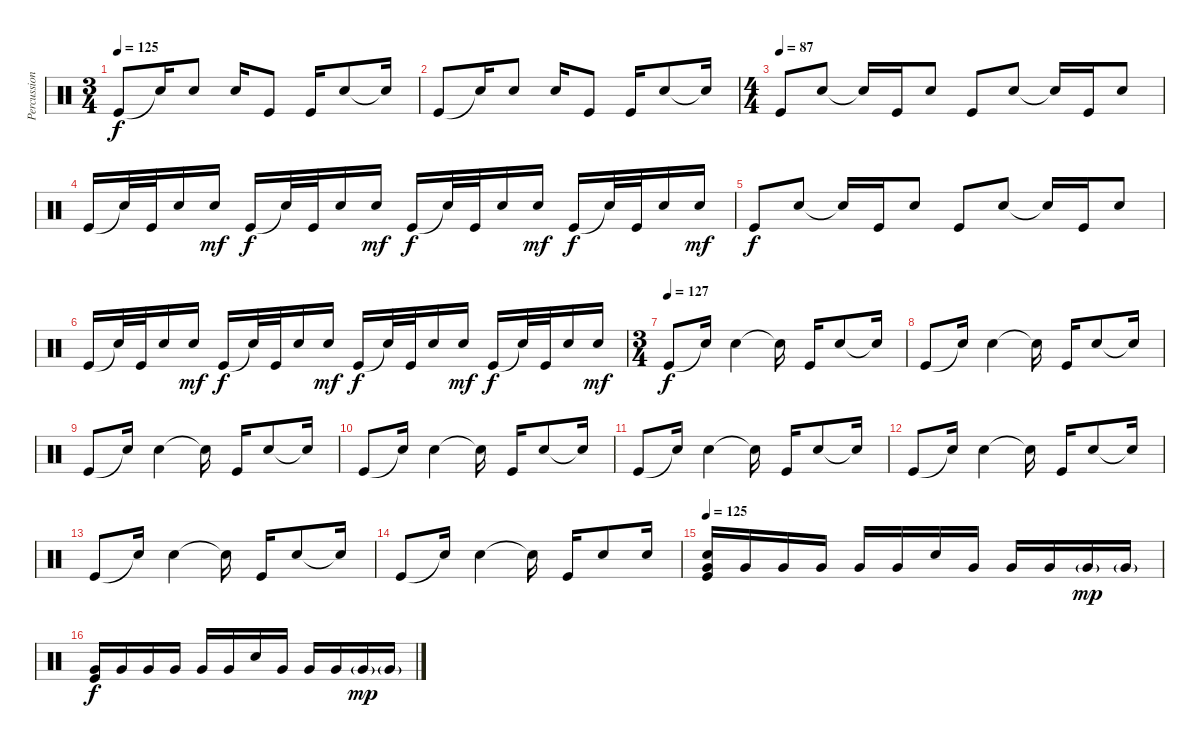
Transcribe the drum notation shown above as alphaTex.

\track ("Percussion" "Percussion") {instrument percussion}
\staff {score}
\articulation defaults
\ts (3 4)
\tempo 125
\clef neutral
\ks c "Kick (hit)".8{dy f} "Snare (hit)"{t}.16 "Electric Snare (hit)".8 "Electric Snare (hit)".16 "Kick (hit)".8 "Kick (hit)".16 "Electric Snare (hit)".8 "Snare (hit)"{t}.16
|
"Kick (hit)".8 "Snare (hit)"{t}.16 "Electric Snare (hit)".8 "Electric Snare (hit)".16 "Kick (hit)".8 "Kick (hit)".16 "Electric Snare (hit)".8 "Snare (hit)"{t}.16 |
\ts (4 4)
\tempo (87)
"Kick (hit)".8 "Electric Snare (hit)".8 "Snare (hit)"{t}.16 "Kick (hit)".16 "Electric Snare (hit)".8 "Kick (hit)".8 "Electric Snare (hit)".8 "Snare (hit)"{t}.16 "Kick (hit)".16 "Electric Snare (hit)".8 |
"Kick (hit)".16 "Snare (hit)"{t}.32 "Kick (hit)".32 "Electric Snare (hit)".16 "Electric Snare (hit)".16{dy mf} "Kick (hit)".16{dy f} "Snare (hit)"{t}.32 "Kick (hit)".32 "Electric Snare (hit)".16 "Electric Snare (hit)".16{dy mf} "Kick (hit)".16{dy f} "Snare (hit)"{t}.32 "Kick (hit)".32 "Electric Snare (hit)".16 "Electric Snare (hit)".16{dy mf} "Kick (hit)".16{dy f} "Snare (hit)"{t}.32 "Kick (hit)".32 "Electric Snare (hit)".16 "Electric Snare (hit)".16{dy mf} |
"Kick (hit)".8{dy f} "Electric Snare (hit)".8 "Snare (hit)"{t}.16 "Kick (hit)".16 "Electric Snare (hit)".8 "Kick (hit)".8 "Electric Snare (hit)".8 "Snare (hit)"{t}.16 "Kick (hit)".16 "Electric Snare (hit)".8 |
"Kick (hit)".16 "Snare (hit)"{t}.32 "Kick (hit)".32 "Electric Snare (hit)".16 "Electric Snare (hit)".16{dy mf} "Kick (hit)".16{dy f} "Snare (hit)"{t}.32 "Kick (hit)".32 "Electric Snare (hit)".16 "Electric Snare (hit)".16{dy mf} "Kick (hit)".16{dy f} "Snare (hit)"{t}.32 "Kick (hit)".32 "Electric Snare (hit)".16 "Electric Snare (hit)".16{dy mf} "Kick (hit)".16{dy f} "Snare (hit)"{t}.32 "Kick (hit)".32 "Electric Snare (hit)".16 "Electric Snare (hit)".16{dy mf} |
\ts (3 4)
\tempo (127)
"Kick (hit)".8{dy f} "Snare (hit)"{t}.16 "Electric Snare (hit)".4 "Snare (hit)"{t}.16 "Kick (hit)".16 "Electric Snare (hit)".8 "Snare (hit)"{t}.16 |
"Kick (hit)".8 "Snare (hit)"{t}.16 "Electric Snare (hit)".4 "Snare (hit)"{t}.16 "Kick (hit)".16 "Electric Snare (hit)".8 "Snare (hit)"{t}.16 |
"Kick (hit)".8 "Snare (hit)"{t}.16 "Electric Snare (hit)".4 "Snare (hit)"{t}.16 "Kick (hit)".16 "Electric Snare (hit)".8 "Snare (hit)"{t}.16 |
"Kick (hit)".8 "Snare (hit)"{t}.16 "Electric Snare (hit)".4 "Snare (hit)"{t}.16 "Kick (hit)".16 "Electric Snare (hit)".8 "Snare (hit)"{t}.16 |
"Kick (hit)".8 "Snare (hit)"{t}.16 "Electric Snare (hit)".4 "Snare (hit)"{t}.16 "Kick (hit)".16 "Electric Snare (hit)".8 "Snare (hit)"{t}.16 |
"Kick (hit)".8 "Snare (hit)"{t}.16 "Electric Snare (hit)".4 "Snare (hit)"{t}.16 "Kick (hit)".16 "Electric Snare (hit)".8 "Snare (hit)"{t}.16 |
"Kick (hit)".8 "Snare (hit)"{t}.16 "Electric Snare (hit)".4 "Snare (hit)"{t}.16 "Kick (hit)".16 "Electric Snare (hit)".8 "Snare (hit)"{t}.16 |
"Kick (hit)".8 "Snare (hit)"{t}.16 "Electric Snare (hit)".4 "Snare (hit)"{t}.16 "Kick (hit)".16 "Electric Snare (hit)".8 "Electric Snare (hit)".16 |
\tempo 125
("Electric Snare (hit)" "Very Low Tom (hit)" "Kick (hit)").16 "Very Low Tom (hit)".16 "Very Low Tom (hit)".16 "Very Low Tom (hit)".16 "Very Low Tom (hit)".16 "Very Low Tom (hit)".16 "Electric Snare (hit)".16 "Very Low Tom (hit)".16 "Very Low Tom (hit)".16 "Very Low Tom (hit)".16 "Very Low Tom (hit)"{g}.16{dy mp} "Very Low Tom (hit)"{g}.16 |
("Very Low Tom (hit)" "Kick (hit)").16{dy f} "Very Low Tom (hit)".16 "Very Low Tom (hit)".16 "Very Low Tom (hit)".16 "Very Low Tom (hit)".16 "Very Low Tom (hit)".16 "Electric Snare (hit)".16 "Very Low Tom (hit)".16 "Very Low Tom (hit)".16 "Very Low Tom (hit)".16 "Very Low Tom (hit)"{g}.16{dy mp} "Very Low Tom (hit)"{g}.16
